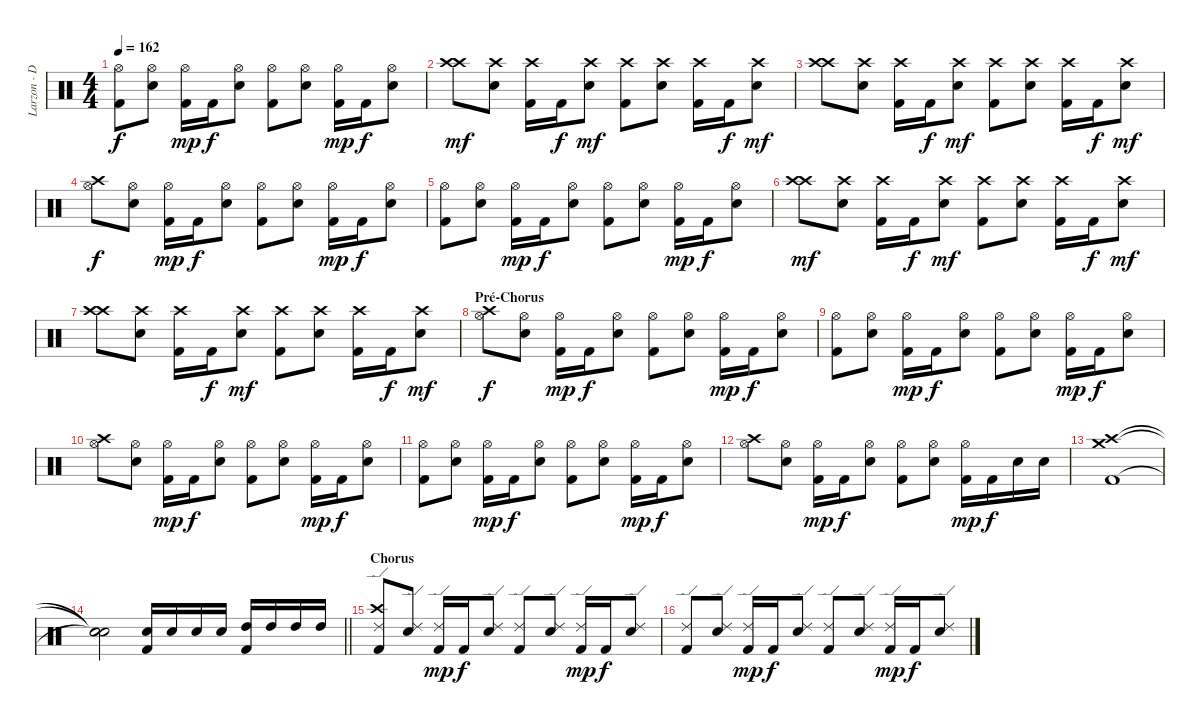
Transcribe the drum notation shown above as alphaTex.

\track ("Larzon - Drums" "Larzon - D") {instrument percussion}
\staff {score}
\articulation defaults
\ts (4 4)
\tempo 162
\clef neutral
\ks c
("Kick (hit) 2" "Hi-Hat (open)").8{dy f} ("Snare (hit) 2" "Hi-Hat (open)").8 ("Kick (hit) 2" "Hi-Hat (open)").16{dy mp} "Kick (hit) 2".16{dy f} ("Snare (hit) 2" "Hi-Hat (open)").8 ("Kick (hit) 2" "Hi-Hat (open)").8 ("Snare (hit) 2" "Hi-Hat (open)").8 ("Kick (hit) 2" "Hi-Hat (open)").16{dy mp} "Kick (hit) 2".16{dy f} ("Snare (hit) 2" "Hi-Hat (open)").8 |
("Crash high (hit)" "Crash high (hit)").8{dy mf} ("Snare (hit) 2" "Crash high (hit)").8 ("Kick (hit) 2" "Crash high (hit)").16 "Kick (hit) 2".16{dy f} ("Snare (hit) 2" "Crash high (hit)").8{dy mf} ("Kick (hit) 2" "Crash high (hit)").8 ("Snare (hit) 2" "Crash high (hit)").8 ("Kick (hit) 2" "Crash high (hit)").16 "Kick (hit) 2".16{dy f} ("Snare (hit) 2" "Crash high (hit)").8{dy mf} |
("Crash high (hit)" "Crash high (hit)").8 ("Snare (hit) 2" "Crash high (hit)").8 ("Kick (hit) 2" "Crash high (hit)").16 "Kick (hit) 2".16{dy f} ("Snare (hit) 2" "Crash high (hit)").8{dy mf} ("Kick (hit) 2" "Crash high (hit)").8 ("Snare (hit) 2" "Crash high (hit)").8 ("Kick (hit) 2" "Crash high (hit)").16 "Kick (hit) 2".16{dy f} ("Snare (hit) 2" "Crash high (hit)").8{dy mf} |
("Crash high (hit)" "Hi-Hat (open)").8{dy f} ("Snare (hit) 2" "Hi-Hat (open)").8 ("Kick (hit) 2" "Hi-Hat (open)").16{dy mp} "Kick (hit) 2".16{dy f} ("Snare (hit) 2" "Hi-Hat (open)").8 ("Kick (hit) 2" "Hi-Hat (open)").8 ("Snare (hit) 2" "Hi-Hat (open)").8 ("Kick (hit) 2" "Hi-Hat (open)").16{dy mp} "Kick (hit) 2".16{dy f} ("Snare (hit) 2" "Hi-Hat (open)").8 |
("Kick (hit) 2" "Hi-Hat (open)").8 ("Snare (hit) 2" "Hi-Hat (open)").8 ("Kick (hit) 2" "Hi-Hat (open)").16{dy mp} "Kick (hit) 2".16{dy f} ("Snare (hit) 2" "Hi-Hat (open)").8 ("Kick (hit) 2" "Hi-Hat (open)").8 ("Snare (hit) 2" "Hi-Hat (open)").8 ("Kick (hit) 2" "Hi-Hat (open)").16{dy mp} "Kick (hit) 2".16{dy f} ("Snare (hit) 2" "Hi-Hat (open)").8 |
("Crash high (hit)" "Crash high (hit)").8{dy mf} ("Snare (hit) 2" "Crash high (hit)").8 ("Kick (hit) 2" "Crash high (hit)").16 "Kick (hit) 2".16{dy f} ("Snare (hit) 2" "Crash high (hit)").8{dy mf} ("Kick (hit) 2" "Crash high (hit)").8 ("Snare (hit) 2" "Crash high (hit)").8 ("Kick (hit) 2" "Crash high (hit)").16 "Kick (hit) 2".16{dy f} ("Snare (hit) 2" "Crash high (hit)").8{dy mf} |
("Crash high (hit)" "Crash high (hit)").8 ("Snare (hit) 2" "Crash high (hit)").8 ("Kick (hit) 2" "Crash high (hit)").16 "Kick (hit) 2".16{dy f} ("Snare (hit) 2" "Crash high (hit)").8{dy mf} ("Kick (hit) 2" "Crash high (hit)").8 ("Snare (hit) 2" "Crash high (hit)").8 ("Kick (hit) 2" "Crash high (hit)").16 "Kick (hit) 2".16{dy f} ("Snare (hit) 2" "Crash high (hit)").8{dy mf} |
\section ("" "Pré-Chorus")
("Crash high (hit)" "Hi-Hat (open)").8{dy f} ("Snare (hit) 2" "Hi-Hat (open)").8 ("Kick (hit) 2" "Hi-Hat (open)").16{dy mp} "Kick (hit) 2".16{dy f} ("Snare (hit) 2" "Hi-Hat (open)").8 ("Kick (hit) 2" "Hi-Hat (open)").8 ("Snare (hit) 2" "Hi-Hat (open)").8 ("Kick (hit) 2" "Hi-Hat (open)").16{dy mp} "Kick (hit) 2".16{dy f} ("Snare (hit) 2" "Hi-Hat (open)").8 |
("Kick (hit) 2" "Hi-Hat (open)").8 ("Snare (hit) 2" "Hi-Hat (open)").8 ("Kick (hit) 2" "Hi-Hat (open)").16{dy mp} "Kick (hit) 2".16{dy f} ("Snare (hit) 2" "Hi-Hat (open)").8 ("Kick (hit) 2" "Hi-Hat (open)").8 ("Snare (hit) 2" "Hi-Hat (open)").8 ("Kick (hit) 2" "Hi-Hat (open)").16{dy mp} "Kick (hit) 2".16{dy f} ("Snare (hit) 2" "Hi-Hat (open)").8 |
("Crash high (hit)" "Hi-Hat (open)").8 ("Snare (hit) 2" "Hi-Hat (open)").8 ("Kick (hit) 2" "Hi-Hat (open)").16{dy mp} "Kick (hit) 2".16{dy f} ("Snare (hit) 2" "Hi-Hat (open)").8 ("Kick (hit) 2" "Hi-Hat (open)").8 ("Snare (hit) 2" "Hi-Hat (open)").8 ("Kick (hit) 2" "Hi-Hat (open)").16{dy mp} "Kick (hit) 2".16{dy f} ("Snare (hit) 2" "Hi-Hat (open)").8 |
("Kick (hit) 2" "Hi-Hat (open)").8 ("Snare (hit) 2" "Hi-Hat (open)").8 ("Kick (hit) 2" "Hi-Hat (open)").16{dy mp} "Kick (hit) 2".16{dy f} ("Snare (hit) 2" "Hi-Hat (open)").8 ("Kick (hit) 2" "Hi-Hat (open)").8 ("Snare (hit) 2" "Hi-Hat (open)").8 ("Kick (hit) 2" "Hi-Hat (open)").16{dy mp} "Kick (hit) 2".16{dy f} ("Snare (hit) 2" "Hi-Hat (open)").8 |
("Crash high (hit)" "Hi-Hat (open)").8 ("Snare (hit) 2" "Hi-Hat (open)").8 ("Kick (hit) 2" "Hi-Hat (open)").16{dy mp} "Kick (hit) 2".16{dy f} ("Snare (hit) 2" "Hi-Hat (open)").8 ("Kick (hit) 2" "Hi-Hat (open)").8 ("Snare (hit) 2" "Hi-Hat (open)").8 ("Kick (hit) 2" "Hi-Hat (open)").16{dy mp} "Kick (hit) 2".16{dy f} "Snare (hit) 2".16 "Snare (hit) 2".16 |
("Crash high (hit)" "Crash medium (hit)" "Kick (hit) 2").1 |
\barLineRight lightlight
("Snare (hit)"{t} "Snare (hit)"{t} "Snare (hit)"{t}).2 ("Snare (hit) 2" "Kick (hit) 2").16 "Snare (hit) 2".16 "Snare (hit) 2".16 "Snare (hit) 2".16 ("High Tom (hit)" "Kick (hit) 2").16 "High Tom (hit)".16 "High Tom (hit)".16 "High Tom (hit)".16 |
\section ("" "Chorus")
("Kick (hit) 2" "Ride (edge) 2" "Crash high (hit)").8 ("Snare (hit) 2" "Ride (edge) 2").8 ("Kick (hit) 2" "Ride (edge) 2").16{dy mp} "Kick (hit) 2".16{dy f} ("Snare (hit) 2" "Ride (edge) 2").8 ("Kick (hit) 2" "Ride (edge) 2").8 ("Snare (hit) 2" "Ride (edge) 2").8 ("Kick (hit) 2" "Ride (edge) 2").16{dy mp} "Kick (hit) 2".16{dy f} ("Snare (hit) 2" "Ride (edge) 2").8 |
("Kick (hit) 2" "Ride (edge) 2").8 ("Snare (hit) 2" "Ride (edge) 2").8 ("Kick (hit) 2" "Ride (edge) 2").16{dy mp} "Kick (hit) 2".16{dy f} ("Snare (hit) 2" "Ride (edge) 2").8 ("Kick (hit) 2" "Ride (edge) 2").8 ("Snare (hit) 2" "Ride (edge) 2").8 ("Kick (hit) 2" "Ride (edge) 2").16{dy mp} "Kick (hit) 2".16{dy f} ("Snare (hit) 2" "Ride (edge) 2").8
